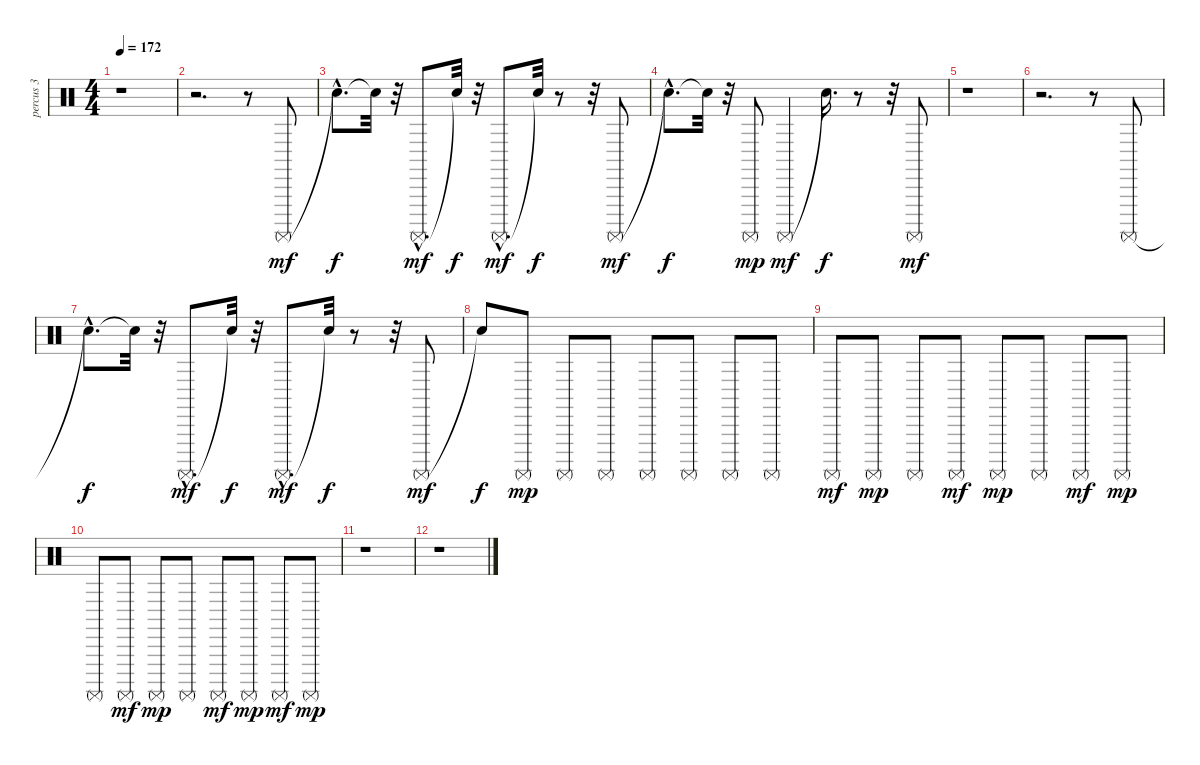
\track ("percus 3" "percus 3") {instrument percussion}
\staff {score}
\articulation defaults
\ts (4 4)
\tempo 172
\clef neutral
\ks c
r.1{dy mf} |
r.2{d} r.8 "Surdo (mute)".8 |
"Snare (hit)"{hac t}.8{d dy f} "Snare (hit)"{t}.32 r.32 "Surdo (mute)"{hac}.8{d dy mf} "Snare (hit)"{t}.32{dy f} r.32 "Surdo (mute)"{hac}.8{d dy mf} "Snare (hit)"{t}.32{dy f} r.8 r.32 "Surdo (mute)".8{dy mf} |
"Snare (hit)"{hac t}.8{d dy f} "Snare (hit)"{t}.32 r.32 "Surdo (mute)".8{dy mp} "Surdo (mute)".4{dy mf} "Snare (hit)"{t}.16{d dy f} r.8 r.32 "Surdo (mute)".8{dy mf} |
r.1 |
r.2{d} r.8 "Surdo (mute)".8 |
"Snare (hit)"{hac t}.8{d dy f} "Snare (hit)"{t}.32 r.32 "Surdo (mute)"{hac}.8{d dy mf} "Snare (hit)"{t}.32{dy f} r.32 "Surdo (mute)"{hac}.8{d dy mf} "Snare (hit)"{t}.32{dy f} r.8 r.32 "Surdo (mute)".8{dy mf} |
"Snare (hit)"{t}.8{dy f} "Surdo (mute)".8{dy mp} "Surdo (mute)".8 "Surdo (mute)".8 "Surdo (mute)".8 "Surdo (mute)".8 "Surdo (mute)".8 "Surdo (mute)".8 |
"Surdo (mute)".8{dy mf} "Surdo (mute)".8{dy mp} "Surdo (mute)".8 "Surdo (mute)".8{dy mf} "Surdo (mute)".8{dy mp} "Surdo (mute)".8 "Surdo (mute)".8{dy mf} "Surdo (mute)".8{dy mp} |
"Surdo (mute)".8 "Surdo (mute)".8{dy mf} "Surdo (mute)".8{dy mp} "Surdo (mute)".8 "Surdo (mute)".8{dy mf} "Surdo (mute)".8{dy mp} "Surdo (mute)".8{dy mf} "Surdo (mute)".8{dy mp} |
r.1 |
r.1
